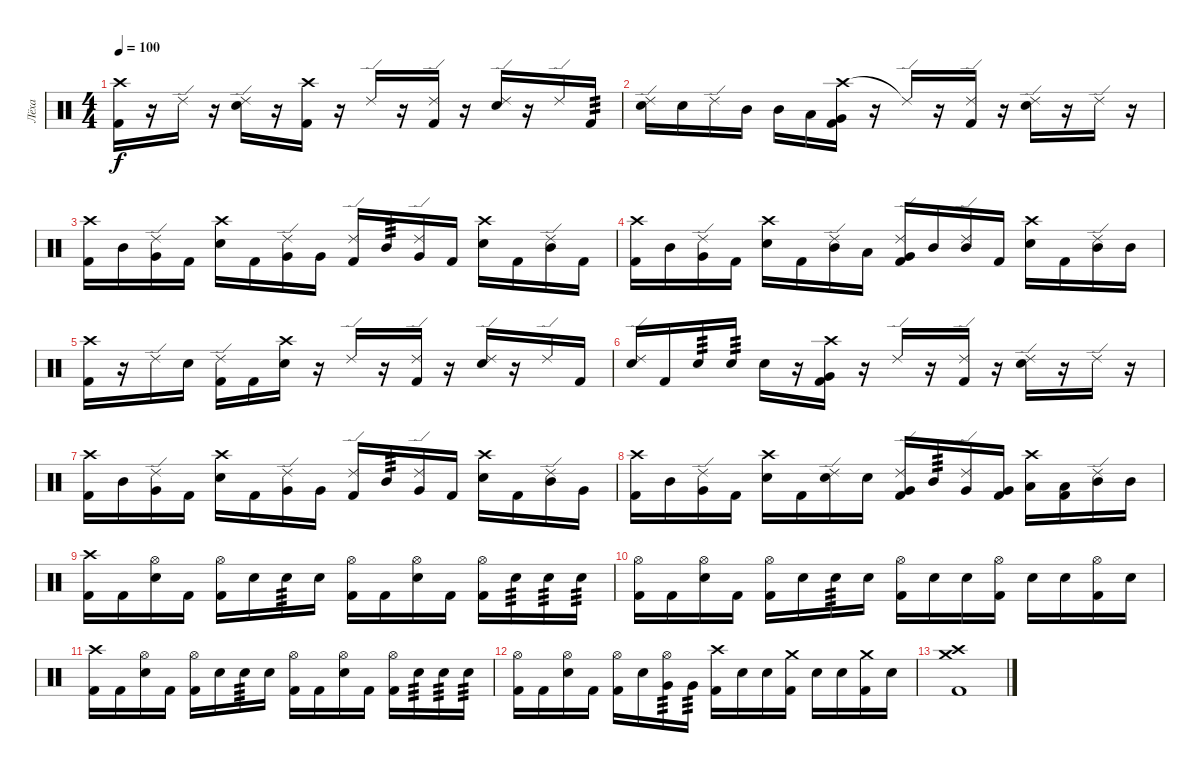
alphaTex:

\track ("Лёха" "Лёха") {instrument percussion}
\staff {score}
\articulation defaults
\ts (4 4)
\tempo 100
\clef neutral
\ks c
("Crash high (hit)" "Kick (hit) 2").16{dy f} r.16 "Ride (edge) 2".16 r.16 ("Ride (edge) 2" "Electric Snare (hit)").16 r.16 ("Crash high (hit)" "Kick (hit) 2").16 r.16 "Ride (edge) 2".16 r.16 ("Ride (edge) 2" "Kick (hit) 2").16 r.16 ("Ride (edge) 2" "Electric Snare (hit)").16 r.16 "Ride (edge) 2".16 "Kick (hit) 2".16{tp 3} |
("Ride (edge) 2" "Electric Snare (hit)").16 "Electric Snare (hit)".16 "Ride (edge) 2".16 "Mid Tom (hit)".16 "Mid Tom (hit)".16 "Low Tom (hit)".16 ("Crash high (hit)" "Very Low Tom (hit)" "Kick (hit) 2").16 r.16 "Ride (edge) 2"{t}.16 r.16 ("Ride (edge) 2" "Kick (hit) 2").16 r.16 ("Ride (edge) 2" "Electric Snare (hit)").16 r.16 "Ride (edge) 2".16 r.16 |
("Crash high (hit)" "Kick (hit) 2").16 "Mid Tom (hit)".16 ("Ride (edge) 2" "Very Low Tom (hit)").16 "Kick (hit) 2".16 ("Crash high (hit)" "Electric Snare (hit)").16 "Kick (hit) 2".16 ("Ride (edge) 2" "Very Low Tom (hit)").16 "Very Low Tom (hit)".16 ("Ride (edge) 2" "Kick (hit) 2").16 "Mid Tom (hit)".16{tp 3} ("Ride (edge) 2" "Very Low Tom (hit)").16 "Kick (hit) 2".16 ("Crash high (hit)" "Electric Snare (hit)").16 "Kick (hit) 2".16 ("Ride (edge) 2" "Mid Tom (hit)").16 "Kick (hit) 2".16 |
("Crash high (hit)" "Kick (hit) 2").16 "Mid Tom (hit)".16 ("Ride (edge) 2" "Very Low Tom (hit)").16 "Kick (hit) 2".16 ("Crash high (hit)" "Electric Snare (hit)").16 "Kick (hit) 2".16 ("Ride (edge) 2" "Mid Tom (hit)").16 "Low Tom (hit)".16 ("Ride (edge) 2" "Very Low Tom (hit)" "Kick (hit) 2").16 "Mid Tom (hit)".16 ("Ride (edge) 2" "Mid Tom (hit)").16 "Kick (hit) 2".16 ("Crash high (hit)" "Electric Snare (hit)").16 "Kick (hit) 2".16 ("Ride (edge) 2" "Mid Tom (hit)").16 "Mid Tom (hit)".16 |
("Crash high (hit)" "Kick (hit) 2").16 r.16 "Ride (edge) 2".16 "Electric Snare (hit)".16 ("Ride (edge) 2" "Kick (hit) 2").16 "Kick (hit) 2".16 ("Crash high (hit)" "Electric Snare (hit)").16 r.16 "Ride (edge) 2".16 r.16 ("Ride (edge) 2" "Kick (hit) 2").16 r.16 ("Ride (edge) 2" "Electric Snare (hit)").16 r.16 "Ride (edge) 2".16 "Kick (hit) 2".16 |
("Ride (edge) 2" "Electric Snare (hit)").16 "Kick (hit) 2".16 "Electric Snare (hit)".16{tp 3} "Electric Snare (hit)".16{tp 3} "Electric Snare (hit)".16 r.16 ("Crash high (hit)" "Very Low Tom (hit)" "Kick (hit) 2").16 r.16 "Ride (edge) 2".16 r.16 ("Ride (edge) 2" "Kick (hit) 2").16 r.16 ("Ride (edge) 2" "Electric Snare (hit)").16 r.16 "Ride (edge) 2".16 r.16 |
("Crash high (hit)" "Kick (hit) 2").16 "Mid Tom (hit)".16 ("Ride (edge) 2" "Very Low Tom (hit)").16 "Kick (hit) 2".16 ("Crash high (hit)" "Electric Snare (hit)").16 "Kick (hit) 2".16 ("Ride (edge) 2" "Very Low Tom (hit)").16 "Very Low Tom (hit)".16 ("Ride (edge) 2" "Kick (hit) 2").16 "Mid Tom (hit)".16{tp 3} ("Ride (edge) 2" "Very Low Tom (hit)").16 "Kick (hit) 2".16 ("Crash high (hit)" "Electric Snare (hit)").16 "Kick (hit) 2".16 ("Ride (edge) 2" "Mid Tom (hit)").16 "Very Low Tom (hit)".16 |
("Crash high (hit)" "Kick (hit) 2").16 "Mid Tom (hit)".16 ("Ride (edge) 2" "Very Low Tom (hit)").16 "Kick (hit) 2".16 ("Crash high (hit)" "Electric Snare (hit)").16 "Kick (hit) 2".16 ("Ride (edge) 2" "Electric Snare (hit)").16 "Electric Snare (hit)".16 ("Ride (edge) 2" "Very Low Tom (hit)" "Kick (hit) 2").16 "Mid Tom (hit)".16{tp 3} ("Ride (edge) 2" "Very Low Tom (hit)").16 ("Very Low Tom (hit)" "Kick (hit) 2").16 ("Crash high (hit)" "Low Tom (hit)").16 ("Low Tom (hit)" "Kick (hit) 2").16 ("Ride (edge) 2" "Mid Tom (hit)").16 "Mid Tom (hit)".16 |
("Crash high (hit)" "Kick (hit) 2").16 "Kick (hit) 2".16 ("Hi-Hat (open)" "Electric Snare (hit)").16 "Kick (hit) 2".16 ("Hi-Hat (open)" "Kick (hit) 2").16 "Electric Snare (hit)".16 "Electric Snare (hit)".16{tp 3} "Electric Snare (hit)".16 ("Hi-Hat (open)" "Kick (hit) 2").16 "Kick (hit) 2".16 ("Hi-Hat (open)" "Electric Snare (hit)").16 "Kick (hit) 2".16 ("Hi-Hat (open)" "Kick (hit) 2").16 "Electric Snare (hit)".16{tp 3} "Electric Snare (hit)".16{tp 3} "Electric Snare (hit)".16{tp 3} |
("Hi-Hat (open)" "Kick (hit) 2").16 "Kick (hit) 2".16 ("Hi-Hat (open)" "Electric Snare (hit)").16 "Kick (hit) 2".16 ("Hi-Hat (open)" "Kick (hit) 2").16 "Electric Snare (hit)".16 "Electric Snare (hit)".16{tp 3} "Electric Snare (hit)".16 ("Hi-Hat (open)" "Kick (hit) 2").16 "Electric Snare (hit)".16 "Electric Snare (hit)".16 ("Hi-Hat (open)" "Kick (hit) 2").16 "Electric Snare (hit)".16 "Electric Snare (hit)".16 ("Hi-Hat (open)" "Kick (hit) 2").16 "Electric Snare (hit)".16 |
("Crash high (hit)" "Kick (hit) 2").16 "Kick (hit) 2".16 ("Hi-Hat (open)" "Electric Snare (hit)").16 "Kick (hit) 2".16 ("Hi-Hat (open)" "Kick (hit) 2").16 "Electric Snare (hit)".16 "Electric Snare (hit)".16{tp 3} "Electric Snare (hit)".16 ("Hi-Hat (open)" "Kick (hit) 2").16 "Kick (hit) 2".16 ("Hi-Hat (open)" "Electric Snare (hit)").16 "Kick (hit) 2".16 ("Hi-Hat (open)" "Kick (hit) 2").16 "Electric Snare (hit)".16{tp 3} "Electric Snare (hit)".16{tp 3} "Electric Snare (hit)".16{tp 3} |
("Hi-Hat (open)" "Kick (hit) 2").16 "Kick (hit) 2".16 ("Hi-Hat (open)" "Electric Snare (hit)").16 "Kick (hit) 2".16 ("Hi-Hat (open)" "Kick (hit) 2").16 "Electric Snare (hit)".16 ("Hi-Hat (open)" "Very Low Tom (hit)").16{tp 3} "Very Low Tom (hit)".16{tp 3} ("Crash high (hit)" "Kick (hit) 2").16 "Electric Snare (hit)".16 "Electric Snare (hit)".16 ("Crash medium (hit)" "Kick (hit) 2").16 "Electric Snare (hit)".16 "Electric Snare (hit)".16 ("Crash medium (hit)" "Kick (hit) 2").16 "Electric Snare (hit)".16 |
("Crash high (hit)" "Crash medium (hit)" "Kick (hit) 2").1
